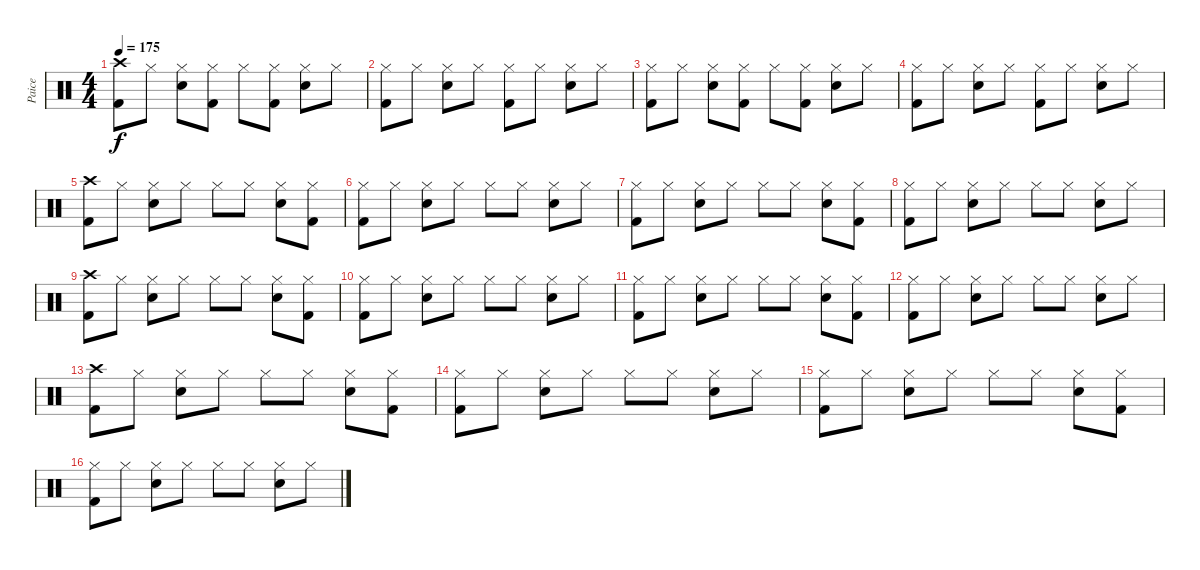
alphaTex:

\track ("Paice" "Paice") {instrument percussion}
\staff {score}
\articulation defaults
\ts (4 4)
\tempo 175
\clef neutral
\ks c
("Crash high (hit)" "Kick (hit) 2").8{dy f} "Hi-Hat (closed)".8 ("Hi-Hat (closed)" "Electric Snare (hit)").8 ("Hi-Hat (closed)" "Kick (hit) 2").8 "Hi-Hat (closed)".8 ("Hi-Hat (closed)" "Kick (hit) 2").8 ("Hi-Hat (closed)" "Electric Snare (hit)").8 "Hi-Hat (closed)".8 |
("Hi-Hat (closed)" "Kick (hit) 2").8 "Hi-Hat (closed)".8 ("Hi-Hat (closed)" "Electric Snare (hit)").8 "Hi-Hat (closed)".8 ("Hi-Hat (closed)" "Kick (hit) 2").8 "Hi-Hat (closed)".8 ("Hi-Hat (closed)" "Electric Snare (hit)").8 "Hi-Hat (closed)".8 |
("Hi-Hat (closed)" "Kick (hit) 2").8 "Hi-Hat (closed)".8 ("Hi-Hat (closed)" "Electric Snare (hit)").8 ("Hi-Hat (closed)" "Kick (hit) 2").8 "Hi-Hat (closed)".8 ("Hi-Hat (closed)" "Kick (hit) 2").8 ("Hi-Hat (closed)" "Electric Snare (hit)").8 "Hi-Hat (closed)".8 |
("Hi-Hat (closed)" "Kick (hit) 2").8 "Hi-Hat (closed)".8 ("Hi-Hat (closed)" "Electric Snare (hit)").8 "Hi-Hat (closed)".8 ("Hi-Hat (closed)" "Kick (hit) 2").8 "Hi-Hat (closed)".8 ("Hi-Hat (closed)" "Electric Snare (hit)").8 "Hi-Hat (closed)".8 |
("Crash high (hit)" "Kick (hit) 2").8 "Hi-Hat (closed)".8 ("Hi-Hat (closed)" "Electric Snare (hit)").8 "Hi-Hat (closed)".8 "Hi-Hat (closed)".8 "Hi-Hat (closed)".8 ("Hi-Hat (closed)" "Electric Snare (hit)").8 ("Hi-Hat (closed)" "Kick (hit) 2").8 |
("Hi-Hat (closed)" "Kick (hit) 2").8 "Hi-Hat (closed)".8 ("Hi-Hat (closed)" "Electric Snare (hit)").8 "Hi-Hat (closed)".8 "Hi-Hat (closed)".8 "Hi-Hat (closed)".8 ("Hi-Hat (closed)" "Electric Snare (hit)").8 "Hi-Hat (closed)".8 |
("Hi-Hat (closed)" "Kick (hit) 2").8 "Hi-Hat (closed)".8 ("Hi-Hat (closed)" "Electric Snare (hit)").8 "Hi-Hat (closed)".8 "Hi-Hat (closed)".8 "Hi-Hat (closed)".8 ("Hi-Hat (closed)" "Electric Snare (hit)").8 ("Hi-Hat (closed)" "Kick (hit) 2").8 |
("Hi-Hat (closed)" "Kick (hit) 2").8 "Hi-Hat (closed)".8 ("Hi-Hat (closed)" "Electric Snare (hit)").8 "Hi-Hat (closed)".8 "Hi-Hat (closed)".8 "Hi-Hat (closed)".8 ("Hi-Hat (closed)" "Electric Snare (hit)").8 "Hi-Hat (closed)".8 |
("Crash high (hit)" "Kick (hit) 2").8 "Hi-Hat (closed)".8 ("Hi-Hat (closed)" "Electric Snare (hit)").8 "Hi-Hat (closed)".8 "Hi-Hat (closed)".8 "Hi-Hat (closed)".8 ("Hi-Hat (closed)" "Electric Snare (hit)").8 ("Hi-Hat (closed)" "Kick (hit) 2").8 |
("Hi-Hat (closed)" "Kick (hit) 2").8 "Hi-Hat (closed)".8 ("Hi-Hat (closed)" "Electric Snare (hit)").8 "Hi-Hat (closed)".8 "Hi-Hat (closed)".8 "Hi-Hat (closed)".8 ("Hi-Hat (closed)" "Electric Snare (hit)").8 "Hi-Hat (closed)".8 |
("Hi-Hat (closed)" "Kick (hit) 2").8 "Hi-Hat (closed)".8 ("Hi-Hat (closed)" "Electric Snare (hit)").8 "Hi-Hat (closed)".8 "Hi-Hat (closed)".8 "Hi-Hat (closed)".8 ("Hi-Hat (closed)" "Electric Snare (hit)").8 ("Hi-Hat (closed)" "Kick (hit) 2").8 |
("Hi-Hat (closed)" "Kick (hit) 2").8 "Hi-Hat (closed)".8 ("Hi-Hat (closed)" "Electric Snare (hit)").8 "Hi-Hat (closed)".8 "Hi-Hat (closed)".8 "Hi-Hat (closed)".8 ("Hi-Hat (closed)" "Electric Snare (hit)").8 "Hi-Hat (closed)".8 |
("Crash high (hit)" "Kick (hit) 2").8 "Hi-Hat (closed)".8 ("Hi-Hat (closed)" "Electric Snare (hit)").8 "Hi-Hat (closed)".8 "Hi-Hat (closed)".8 "Hi-Hat (closed)".8 ("Hi-Hat (closed)" "Electric Snare (hit)").8 ("Hi-Hat (closed)" "Kick (hit) 2").8 |
("Hi-Hat (closed)" "Kick (hit) 2").8 "Hi-Hat (closed)".8 ("Hi-Hat (closed)" "Electric Snare (hit)").8 "Hi-Hat (closed)".8 "Hi-Hat (closed)".8 "Hi-Hat (closed)".8 ("Hi-Hat (closed)" "Electric Snare (hit)").8 "Hi-Hat (closed)".8 |
("Hi-Hat (closed)" "Kick (hit) 2").8 "Hi-Hat (closed)".8 ("Hi-Hat (closed)" "Electric Snare (hit)").8 "Hi-Hat (closed)".8 "Hi-Hat (closed)".8 "Hi-Hat (closed)".8 ("Hi-Hat (closed)" "Electric Snare (hit)").8 ("Hi-Hat (closed)" "Kick (hit) 2").8 |
("Hi-Hat (closed)" "Kick (hit) 2").8 "Hi-Hat (closed)".8 ("Hi-Hat (closed)" "Electric Snare (hit)").8 "Hi-Hat (closed)".8 "Hi-Hat (closed)".8 "Hi-Hat (closed)".8 ("Hi-Hat (closed)" "Electric Snare (hit)").8 "Hi-Hat (closed)".8
